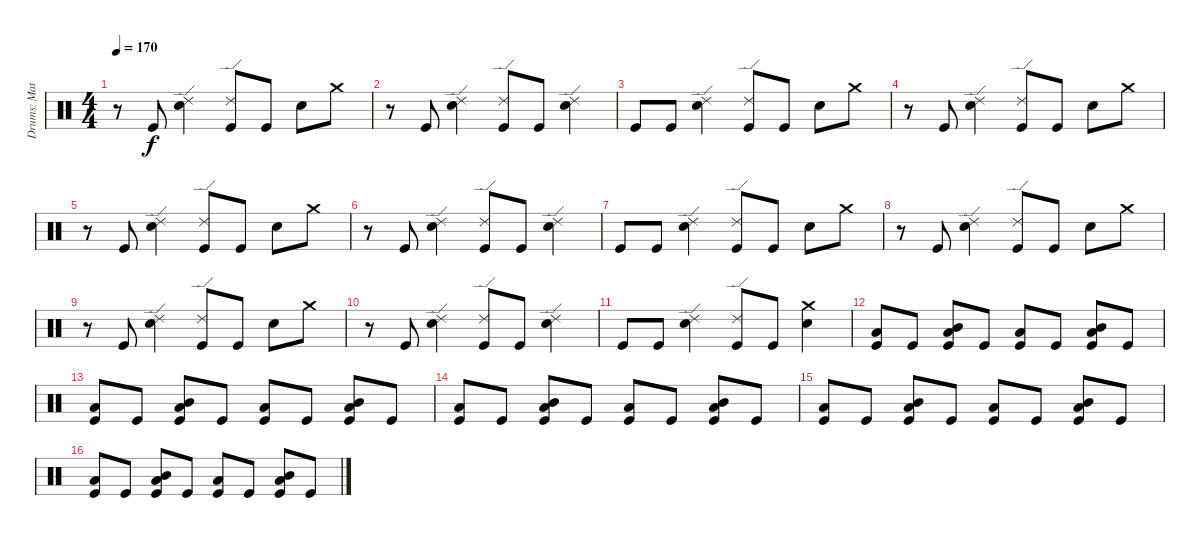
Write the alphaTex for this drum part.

\track ("Drums: Matt" "Drums: Mat") {solo instrument percussion}
\staff {score}
\articulation defaults
\ts (4 4)
\tempo 170
\clef neutral
\ks c
r.8{dy f} "Kick (hit)".8 ("Ride (edge) 2" "Snare (hit) 2").4 ("Kick (hit)" "Ride (edge) 2").8 "Kick (hit)".8 "Snare (hit) 2".8 "Crash medium (hit)".8 |
r.8 "Kick (hit)".8 ("Ride (edge) 2" "Snare (hit) 2").4 ("Ride (edge) 2" "Kick (hit)").8 "Kick (hit)".8 ("Ride (edge) 2" "Snare (hit) 2").4 |
"Kick (hit)".8 "Kick (hit)".8 ("Ride (edge) 2" "Snare (hit) 2").4 ("Ride (edge) 2" "Kick (hit)").8 "Kick (hit)".8 "Snare (hit) 2".8 "Crash medium (hit)".8 |
r.8 "Kick (hit)".8 ("Snare (hit) 2" "Ride (edge) 2").4 ("Ride (edge) 2" "Kick (hit)").8 "Kick (hit)".8 "Snare (hit) 2".8 "Crash medium (hit)".8 |
r.8 "Kick (hit)".8 ("Snare (hit) 2" "Ride (edge) 2").4 ("Kick (hit)" "Ride (edge) 2").8 "Kick (hit)".8 "Snare (hit) 2".8 "Crash medium (hit)".8 |
r.8 "Kick (hit)".8 ("Snare (hit) 2" "Ride (edge) 2").4 ("Kick (hit)" "Ride (edge) 2").8 "Kick (hit)".8 ("Snare (hit) 2" "Ride (edge) 2").4 |
"Kick (hit)".8 "Kick (hit)".8 ("Ride (edge) 2" "Snare (hit) 2").4 ("Ride (edge) 2" "Kick (hit)").8 "Kick (hit)".8 "Snare (hit) 2".8 "Crash medium (hit)".8 |
r.8 "Kick (hit)".8 ("Snare (hit) 2" "Ride (edge) 2").4 ("Ride (edge) 2" "Kick (hit)").8 "Kick (hit)".8 "Snare (hit) 2".8 "Crash medium (hit)".8 |
r.8 "Kick (hit)".8 ("Ride (edge) 2" "Snare (hit) 2").4 ("Kick (hit)" "Ride (edge) 2").8 "Kick (hit)".8 "Snare (hit) 2".8 "Crash medium (hit)".8 |
r.8 "Kick (hit)".8 ("Snare (hit) 2" "Ride (edge) 2").4 ("Kick (hit)" "Ride (edge) 2").8 "Kick (hit)".8 ("Snare (hit) 2" "Ride (edge) 2").4 |
"Kick (hit)".8 "Kick (hit)".8 ("Snare (hit) 2" "Ride (edge) 2").4 ("Kick (hit)" "Ride (edge) 2").8 "Kick (hit)".8 ("Snare (hit) 2" "Crash medium (hit)").4 |
("Kick (hit)" "Low Floor Tom (hit)").8 "Kick (hit)".8 ("Low Floor Tom (hit)" "Mid Tom (hit)" "Kick (hit)").8 "Kick (hit)".8 ("Low Floor Tom (hit)" "Kick (hit)").8 "Kick (hit)".8 ("Kick (hit)" "Mid Tom (hit)" "Low Floor Tom (hit)").8 "Kick (hit)".8 |
("Low Floor Tom (hit)" "Kick (hit)").8 "Kick (hit)".8 ("Kick (hit)" "Mid Tom (hit)" "Low Floor Tom (hit)").8 "Kick (hit)".8 ("Low Floor Tom (hit)" "Kick (hit)").8 "Kick (hit)".8 ("Kick (hit)" "Low Floor Tom (hit)" "Mid Tom (hit)").8 "Kick (hit)".8 |
("Kick (hit)" "Low Floor Tom (hit)").8 "Kick (hit)".8 ("Low Floor Tom (hit)" "Mid Tom (hit)" "Kick (hit)").8 "Kick (hit)".8 ("Kick (hit)" "Low Floor Tom (hit)").8 "Kick (hit)".8 ("Low Floor Tom (hit)" "Kick (hit)" "Mid Tom (hit)").8 "Kick (hit)".8 |
("Low Floor Tom (hit)" "Kick (hit)").8 "Kick (hit)".8 ("Kick (hit)" "Mid Tom (hit)" "Low Floor Tom (hit)").8 "Kick (hit)".8 ("Low Floor Tom (hit)" "Kick (hit)").8 "Kick (hit)".8 ("Mid Tom (hit)" "Kick (hit)" "Low Floor Tom (hit)").8 "Kick (hit)".8 |
("Kick (hit)" "Low Floor Tom (hit)").8 "Kick (hit)".8 ("Low Floor Tom (hit)" "Mid Tom (hit)" "Kick (hit)").8 "Kick (hit)".8 ("Kick (hit)" "Low Floor Tom (hit)").8 "Kick (hit)".8 ("Low Floor Tom (hit)" "Kick (hit)" "Mid Tom (hit)").8 "Kick (hit)".8
